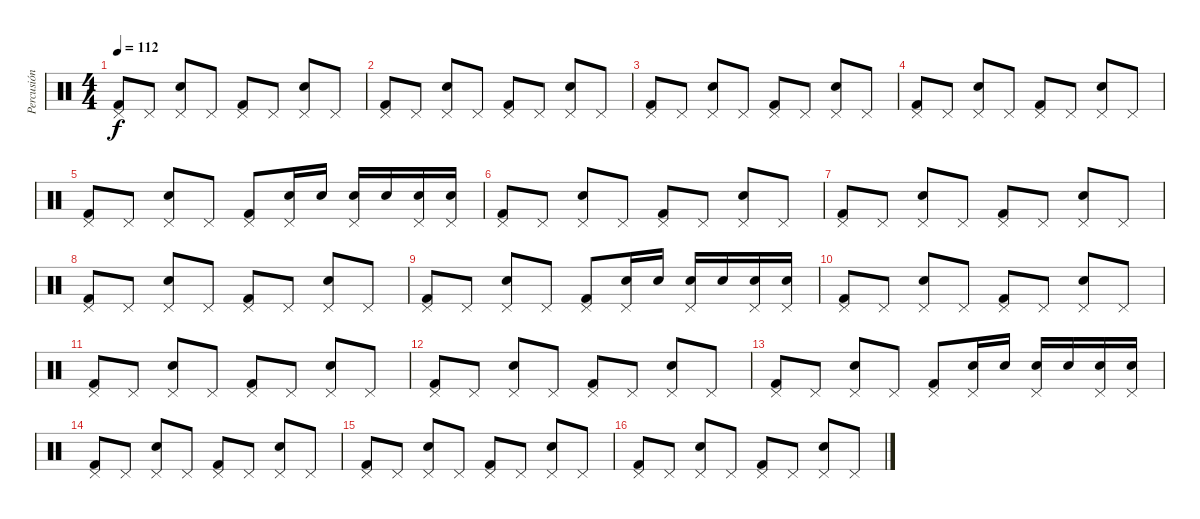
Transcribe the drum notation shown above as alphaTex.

\track ("Percusión" "Percusión") {instrument percussion}
\staff {score}
\articulation defaults
\ts (4 4)
\tempo 112
\clef neutral
\ks c
("Pedal Hi-Hat (hit)" "Kick (hit) 2").8{dy f} "Pedal Hi-Hat (hit)".8 ("Snare (hit) 2" "Pedal Hi-Hat (hit)").8 "Pedal Hi-Hat (hit)".8 ("Pedal Hi-Hat (hit)" "Kick (hit) 2").8 "Pedal Hi-Hat (hit)".8 ("Snare (hit) 2" "Pedal Hi-Hat (hit)").8 "Pedal Hi-Hat (hit)".8 |
("Pedal Hi-Hat (hit)" "Kick (hit) 2").8 "Pedal Hi-Hat (hit)".8 ("Snare (hit) 2" "Pedal Hi-Hat (hit)").8 "Pedal Hi-Hat (hit)".8 ("Pedal Hi-Hat (hit)" "Kick (hit) 2").8 "Pedal Hi-Hat (hit)".8 ("Snare (hit) 2" "Pedal Hi-Hat (hit)").8 "Pedal Hi-Hat (hit)".8 |
("Pedal Hi-Hat (hit)" "Kick (hit) 2").8 "Pedal Hi-Hat (hit)".8 ("Snare (hit) 2" "Pedal Hi-Hat (hit)").8 "Pedal Hi-Hat (hit)".8 ("Pedal Hi-Hat (hit)" "Kick (hit) 2").8 "Pedal Hi-Hat (hit)".8 ("Snare (hit) 2" "Pedal Hi-Hat (hit)").8 "Pedal Hi-Hat (hit)".8 |
("Pedal Hi-Hat (hit)" "Kick (hit) 2").8 "Pedal Hi-Hat (hit)".8 ("Snare (hit) 2" "Pedal Hi-Hat (hit)").8 "Pedal Hi-Hat (hit)".8 ("Pedal Hi-Hat (hit)" "Kick (hit) 2").8 "Pedal Hi-Hat (hit)".8 ("Snare (hit) 2" "Pedal Hi-Hat (hit)").8 "Pedal Hi-Hat (hit)".8 |
("Pedal Hi-Hat (hit)" "Kick (hit) 2").8 "Pedal Hi-Hat (hit)".8 ("Snare (hit) 2" "Pedal Hi-Hat (hit)").8 "Pedal Hi-Hat (hit)".8 ("Pedal Hi-Hat (hit)" "Kick (hit) 2").8 ("Snare (hit) 2" "Pedal Hi-Hat (hit)").16 "Snare (hit) 2".16 ("Snare (hit) 2" "Pedal Hi-Hat (hit)").16 "Snare (hit) 2".16 ("Snare (hit) 2" "Pedal Hi-Hat (hit)").16 ("Snare (hit) 2" "Pedal Hi-Hat (hit)").16 |
("Pedal Hi-Hat (hit)" "Kick (hit) 2").8 "Pedal Hi-Hat (hit)".8 ("Snare (hit) 2" "Pedal Hi-Hat (hit)").8 "Pedal Hi-Hat (hit)".8 ("Pedal Hi-Hat (hit)" "Kick (hit) 2").8 "Pedal Hi-Hat (hit)".8 ("Snare (hit) 2" "Pedal Hi-Hat (hit)").8 "Pedal Hi-Hat (hit)".8 |
("Pedal Hi-Hat (hit)" "Kick (hit) 2").8 "Pedal Hi-Hat (hit)".8 ("Snare (hit) 2" "Pedal Hi-Hat (hit)").8 "Pedal Hi-Hat (hit)".8 ("Pedal Hi-Hat (hit)" "Kick (hit) 2").8 "Pedal Hi-Hat (hit)".8 ("Snare (hit) 2" "Pedal Hi-Hat (hit)").8 "Pedal Hi-Hat (hit)".8 |
("Pedal Hi-Hat (hit)" "Kick (hit) 2").8 "Pedal Hi-Hat (hit)".8 ("Snare (hit) 2" "Pedal Hi-Hat (hit)").8 "Pedal Hi-Hat (hit)".8 ("Pedal Hi-Hat (hit)" "Kick (hit) 2").8 "Pedal Hi-Hat (hit)".8 ("Snare (hit) 2" "Pedal Hi-Hat (hit)").8 "Pedal Hi-Hat (hit)".8 |
("Pedal Hi-Hat (hit)" "Kick (hit) 2").8 "Pedal Hi-Hat (hit)".8 ("Snare (hit) 2" "Pedal Hi-Hat (hit)").8 "Pedal Hi-Hat (hit)".8 ("Pedal Hi-Hat (hit)" "Kick (hit) 2").8 ("Snare (hit) 2" "Pedal Hi-Hat (hit)").16 "Snare (hit) 2".16 ("Snare (hit) 2" "Pedal Hi-Hat (hit)").16 "Snare (hit) 2".16 ("Snare (hit) 2" "Pedal Hi-Hat (hit)").16 ("Snare (hit) 2" "Pedal Hi-Hat (hit)").16 |
("Pedal Hi-Hat (hit)" "Kick (hit) 2").8 "Pedal Hi-Hat (hit)".8 ("Snare (hit) 2" "Pedal Hi-Hat (hit)").8 "Pedal Hi-Hat (hit)".8 ("Pedal Hi-Hat (hit)" "Kick (hit) 2").8 "Pedal Hi-Hat (hit)".8 ("Snare (hit) 2" "Pedal Hi-Hat (hit)").8 "Pedal Hi-Hat (hit)".8 |
("Pedal Hi-Hat (hit)" "Kick (hit) 2").8 "Pedal Hi-Hat (hit)".8 ("Snare (hit) 2" "Pedal Hi-Hat (hit)").8 "Pedal Hi-Hat (hit)".8 ("Pedal Hi-Hat (hit)" "Kick (hit) 2").8 "Pedal Hi-Hat (hit)".8 ("Snare (hit) 2" "Pedal Hi-Hat (hit)").8 "Pedal Hi-Hat (hit)".8 |
("Pedal Hi-Hat (hit)" "Kick (hit) 2").8 "Pedal Hi-Hat (hit)".8 ("Snare (hit) 2" "Pedal Hi-Hat (hit)").8 "Pedal Hi-Hat (hit)".8 ("Pedal Hi-Hat (hit)" "Kick (hit) 2").8 "Pedal Hi-Hat (hit)".8 ("Snare (hit) 2" "Pedal Hi-Hat (hit)").8 "Pedal Hi-Hat (hit)".8 |
("Pedal Hi-Hat (hit)" "Kick (hit) 2").8 "Pedal Hi-Hat (hit)".8 ("Snare (hit) 2" "Pedal Hi-Hat (hit)").8 "Pedal Hi-Hat (hit)".8 ("Pedal Hi-Hat (hit)" "Kick (hit) 2").8 ("Snare (hit) 2" "Pedal Hi-Hat (hit)").16 "Snare (hit) 2".16 ("Snare (hit) 2" "Pedal Hi-Hat (hit)").16 "Snare (hit) 2".16 ("Snare (hit) 2" "Pedal Hi-Hat (hit)").16 ("Snare (hit) 2" "Pedal Hi-Hat (hit)").16 |
("Pedal Hi-Hat (hit)" "Kick (hit) 2").8 "Pedal Hi-Hat (hit)".8 ("Snare (hit) 2" "Pedal Hi-Hat (hit)").8 "Pedal Hi-Hat (hit)".8 ("Pedal Hi-Hat (hit)" "Kick (hit) 2").8 "Pedal Hi-Hat (hit)".8 ("Snare (hit) 2" "Pedal Hi-Hat (hit)").8 "Pedal Hi-Hat (hit)".8 |
("Pedal Hi-Hat (hit)" "Kick (hit) 2").8 "Pedal Hi-Hat (hit)".8 ("Snare (hit) 2" "Pedal Hi-Hat (hit)").8 "Pedal Hi-Hat (hit)".8 ("Pedal Hi-Hat (hit)" "Kick (hit) 2").8 "Pedal Hi-Hat (hit)".8 ("Snare (hit) 2" "Pedal Hi-Hat (hit)").8 "Pedal Hi-Hat (hit)".8 |
("Pedal Hi-Hat (hit)" "Kick (hit) 2").8 "Pedal Hi-Hat (hit)".8 ("Snare (hit) 2" "Pedal Hi-Hat (hit)").8 "Pedal Hi-Hat (hit)".8 ("Pedal Hi-Hat (hit)" "Kick (hit) 2").8 "Pedal Hi-Hat (hit)".8 ("Snare (hit) 2" "Pedal Hi-Hat (hit)").8 "Pedal Hi-Hat (hit)".8
